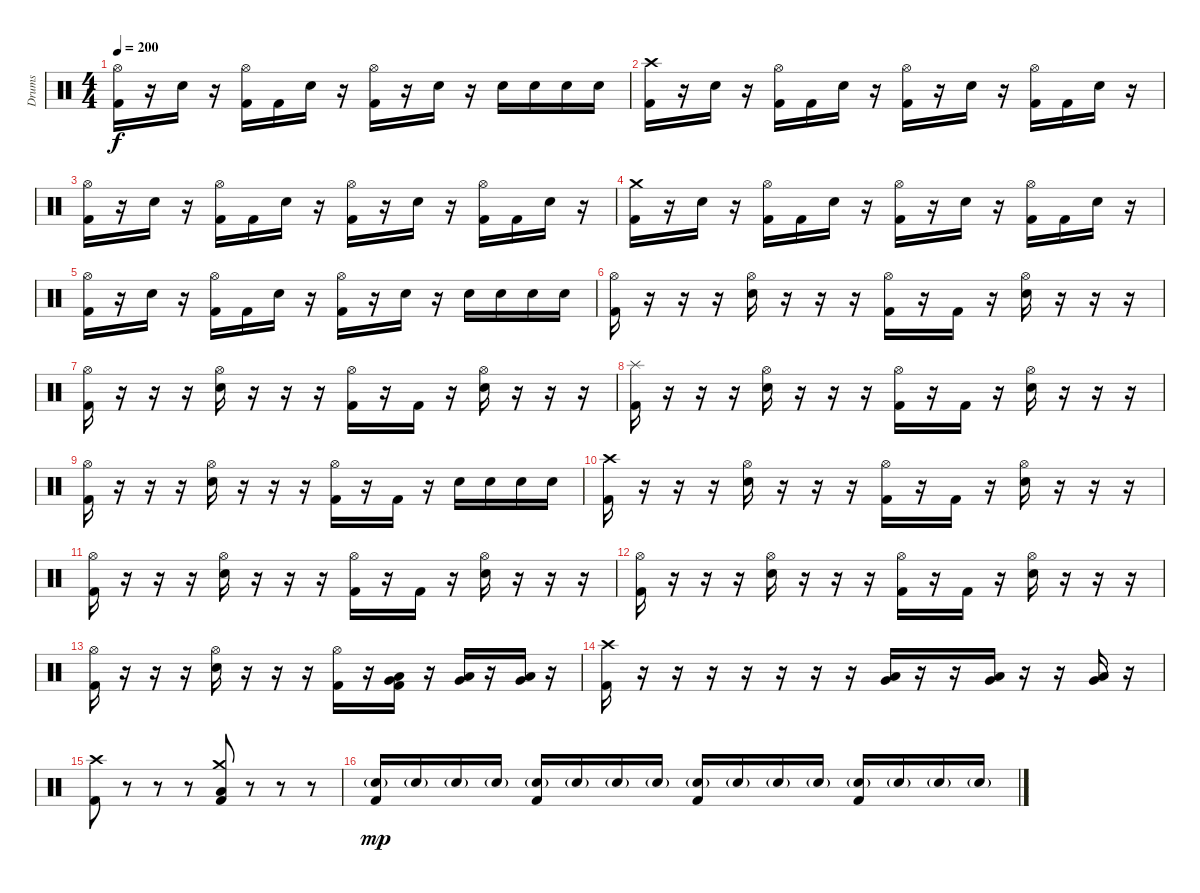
\track ("Drums" "Drums") {instrument percussion}
\staff {score}
\articulation defaults
\ts (4 4)
\tempo 200
\clef neutral
\ks c
("Hi-Hat (open)" "Kick (hit) 2").16{dy f} r.16 "Electric Snare (hit)".16 r.16 ("Hi-Hat (open)" "Kick (hit) 2").16 "Kick (hit) 2".16 "Electric Snare (hit)".16 r.16 ("Hi-Hat (open)" "Kick (hit) 2").16 r.16 "Electric Snare (hit)".16 r.16 "Electric Snare (hit)".16 "Electric Snare (hit)".16 "Electric Snare (hit)".16 "Electric Snare (hit)".16 |
("Crash high (hit)" "Kick (hit) 2").16 r.16 "Electric Snare (hit)".16 r.16 ("Hi-Hat (open)" "Kick (hit) 2").16 "Kick (hit) 2".16 "Electric Snare (hit)".16 r.16 ("Hi-Hat (open)" "Kick (hit) 2").16 r.16 "Electric Snare (hit)".16 r.16 ("Hi-Hat (open)" "Kick (hit) 2").16 "Kick (hit) 2".16 "Electric Snare (hit)".16 r.16 |
("Hi-Hat (open)" "Kick (hit) 2").16 r.16 "Electric Snare (hit)".16 r.16 ("Hi-Hat (open)" "Kick (hit) 2").16 "Kick (hit) 2".16 "Electric Snare (hit)".16 r.16 ("Hi-Hat (open)" "Kick (hit) 2").16 r.16 "Electric Snare (hit)".16 r.16 ("Hi-Hat (open)" "Kick (hit) 2").16 "Kick (hit) 2".16 "Electric Snare (hit)".16 r.16 |
("Crash medium (hit)" "Kick (hit) 2").16 r.16 "Electric Snare (hit)".16 r.16 ("Hi-Hat (open)" "Kick (hit) 2").16 "Kick (hit) 2".16 "Electric Snare (hit)".16 r.16 ("Hi-Hat (open)" "Kick (hit) 2").16 r.16 "Electric Snare (hit)".16 r.16 ("Hi-Hat (open)" "Kick (hit) 2").16 "Kick (hit) 2".16 "Electric Snare (hit)".16 r.16 |
("Hi-Hat (open)" "Kick (hit) 2").16 r.16 "Electric Snare (hit)".16 r.16 ("Hi-Hat (open)" "Kick (hit) 2").16 "Kick (hit) 2".16 "Electric Snare (hit)".16 r.16 ("Hi-Hat (open)" "Kick (hit) 2").16 r.16 "Electric Snare (hit)".16 r.16 "Electric Snare (hit)".16 "Electric Snare (hit)".16 "Electric Snare (hit)".16 "Electric Snare (hit)".16 |
("Hi-Hat (open)" "Kick (hit) 2").16 r.16 r.16 r.16 ("Hi-Hat (open)" "Electric Snare (hit)").16 r.16 r.16 r.16 ("Hi-Hat (open)" "Kick (hit) 2").16 r.16 "Kick (hit) 2".16 r.16 ("Hi-Hat (open)" "Electric Snare (hit)").16 r.16 r.16 r.16 |
("Hi-Hat (open)" "Kick (hit) 2").16 r.16 r.16 r.16 ("Hi-Hat (open)" "Electric Snare (hit)").16 r.16 r.16 r.16 ("Hi-Hat (open)" "Kick (hit) 2").16 r.16 "Kick (hit) 2".16 r.16 ("Hi-Hat (open)" "Electric Snare (hit)").16 r.16 r.16 r.16 |
("Splash (hit)" "Kick (hit) 2").16 r.16 r.16 r.16 ("Hi-Hat (open)" "Electric Snare (hit)").16 r.16 r.16 r.16 ("Hi-Hat (open)" "Kick (hit) 2").16 r.16 "Kick (hit) 2".16 r.16 ("Hi-Hat (open)" "Electric Snare (hit)").16 r.16 r.16 r.16 |
("Hi-Hat (open)" "Kick (hit) 2").16 r.16 r.16 r.16 ("Hi-Hat (open)" "Electric Snare (hit)").16 r.16 r.16 r.16 ("Hi-Hat (open)" "Kick (hit) 2").16 r.16 "Kick (hit) 2".16 r.16 "Electric Snare (hit)".16 "Electric Snare (hit)".16 "Electric Snare (hit)".16 "Electric Snare (hit)".16 |
("Crash high (hit)" "Kick (hit) 2").16 r.16 r.16 r.16 ("Hi-Hat (open)" "Electric Snare (hit)").16 r.16 r.16 r.16 ("Hi-Hat (open)" "Kick (hit) 2").16 r.16 "Kick (hit) 2".16 r.16 ("Hi-Hat (open)" "Electric Snare (hit)").16 r.16 r.16 r.16 |
("Hi-Hat (open)" "Kick (hit) 2").16 r.16 r.16 r.16 ("Hi-Hat (open)" "Electric Snare (hit)").16 r.16 r.16 r.16 ("Hi-Hat (open)" "Kick (hit) 2").16 r.16 "Kick (hit) 2".16 r.16 ("Hi-Hat (open)" "Electric Snare (hit)").16 r.16 r.16 r.16 |
("Hi-Hat (open)" "Kick (hit) 2").16 r.16 r.16 r.16 ("Hi-Hat (open)" "Electric Snare (hit)").16 r.16 r.16 r.16 ("Hi-Hat (open)" "Kick (hit) 2").16 r.16 "Kick (hit) 2".16 r.16 ("Hi-Hat (open)" "Electric Snare (hit)").16 r.16 r.16 r.16 |
("Hi-Hat (open)" "Kick (hit) 2").16 r.16 r.16 r.16 ("Hi-Hat (open)" "Electric Snare (hit)").16 r.16 r.16 r.16 ("Hi-Hat (open)" "Kick (hit) 2").16 r.16 ("Kick (hit) 2" "Low Tom (hit)" "Very Low Tom (hit)").16 r.16 ("Low Tom (hit)" "Very Low Tom (hit)").16 r.16 ("Low Tom (hit)" "Very Low Tom (hit)").16 r.16 |
("Crash high (hit)" "Kick (hit) 2").16 r.16 r.16 r.16 r.16 r.16 r.16 r.16 ("Low Tom (hit)" "Very Low Tom (hit)").16 r.16 r.16 ("Low Tom (hit)" "Very Low Tom (hit)").16 r.16 r.16 ("Low Tom (hit)" "Very Low Tom (hit)").16 r.16 |
("Crash high (hit)" "Kick (hit) 2").8 r.8 r.8 r.8 ("Crash medium (hit)" "Kick (hit) 2" "Low Tom (hit)").8 r.8 r.8 r.8 |
("Electric Snare (hit)"{g} "Kick (hit) 2").16{dy mp} "Electric Snare (hit)"{g}.16 "Electric Snare (hit)"{g}.16 "Electric Snare (hit)"{g}.16 ("Electric Snare (hit)"{g} "Kick (hit) 2").16 "Electric Snare (hit)"{g}.16 "Electric Snare (hit)"{g}.16 "Electric Snare (hit)"{g}.16 ("Electric Snare (hit)"{g} "Kick (hit) 2").16 "Electric Snare (hit)"{g}.16 "Electric Snare (hit)"{g}.16 "Electric Snare (hit)"{g}.16 ("Electric Snare (hit)"{g} "Kick (hit) 2").16 "Electric Snare (hit)"{g}.16 "Electric Snare (hit)"{g}.16 "Electric Snare (hit)"{g}.16
